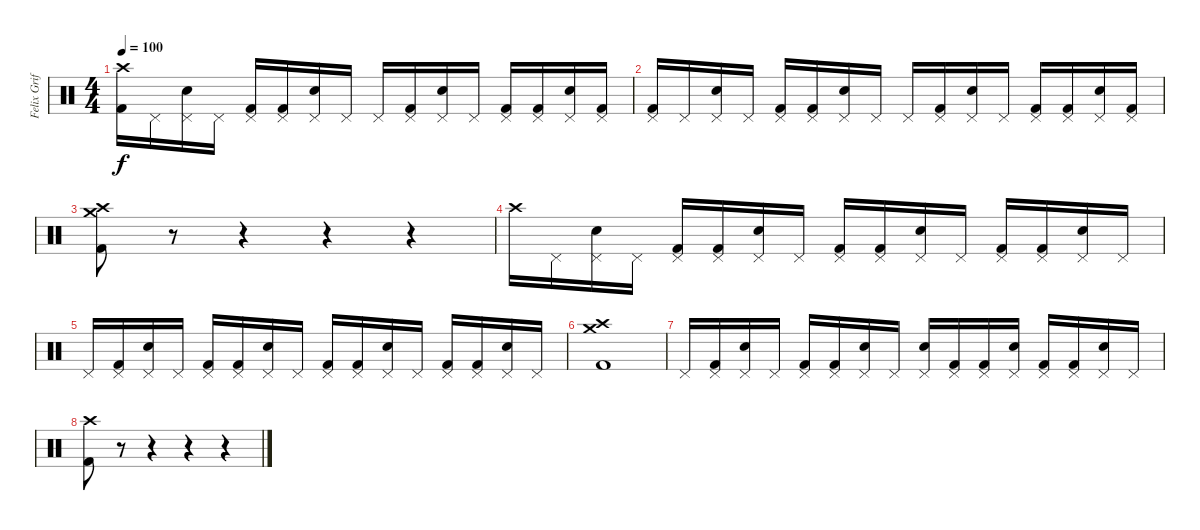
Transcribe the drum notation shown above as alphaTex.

\track ("Felix Griffen" "Felix Grif") {instrument percussion}
\staff {score}
\articulation defaults
\ts (4 4)
\tempo 100
\clef neutral
\ks c
("Crash high (hit)" "Kick (hit) 2").16{dy f} "Pedal Hi-Hat (hit)".16 ("Pedal Hi-Hat (hit)" "Electric Snare (hit)").16 "Pedal Hi-Hat (hit)".16 ("Pedal Hi-Hat (hit)" "Kick (hit) 2").16 ("Pedal Hi-Hat (hit)" "Kick (hit) 2").16 ("Pedal Hi-Hat (hit)" "Electric Snare (hit)").16 "Pedal Hi-Hat (hit)".16 "Pedal Hi-Hat (hit)".16 ("Pedal Hi-Hat (hit)" "Kick (hit) 2").16 ("Pedal Hi-Hat (hit)" "Electric Snare (hit)").16 "Pedal Hi-Hat (hit)".16 ("Pedal Hi-Hat (hit)" "Kick (hit) 2").16 ("Pedal Hi-Hat (hit)" "Kick (hit) 2").16 ("Pedal Hi-Hat (hit)" "Electric Snare (hit)").16 ("Pedal Hi-Hat (hit)" "Kick (hit) 2").16 |
("Pedal Hi-Hat (hit)" "Kick (hit) 2").16 "Pedal Hi-Hat (hit)".16 ("Pedal Hi-Hat (hit)" "Electric Snare (hit)").16 "Pedal Hi-Hat (hit)".16 ("Pedal Hi-Hat (hit)" "Kick (hit) 2").16 ("Pedal Hi-Hat (hit)" "Kick (hit) 2").16 ("Pedal Hi-Hat (hit)" "Electric Snare (hit)").16 "Pedal Hi-Hat (hit)".16 "Pedal Hi-Hat (hit)".16 ("Pedal Hi-Hat (hit)" "Kick (hit) 2").16 ("Pedal Hi-Hat (hit)" "Electric Snare (hit)").16 "Pedal Hi-Hat (hit)".16 ("Pedal Hi-Hat (hit)" "Kick (hit) 2").16 ("Pedal Hi-Hat (hit)" "Kick (hit) 2").16 ("Pedal Hi-Hat (hit)" "Electric Snare (hit)").16 ("Pedal Hi-Hat (hit)" "Kick (hit) 2").16 |
("Crash high (hit)" "Crash medium (hit)" "Kick (hit) 2").8 r.8{volume 0} r.4 r.4 r.4 |
"Crash high (hit)".16{volume 13} "Pedal Hi-Hat (hit)".16 ("Pedal Hi-Hat (hit)" "Electric Snare (hit)").16 "Pedal Hi-Hat (hit)".16 ("Pedal Hi-Hat (hit)" "Kick (hit) 2").16 ("Pedal Hi-Hat (hit)" "Kick (hit) 2").16 ("Pedal Hi-Hat (hit)" "Electric Snare (hit)").16 "Pedal Hi-Hat (hit)".16 ("Pedal Hi-Hat (hit)" "Kick (hit) 2").16 ("Pedal Hi-Hat (hit)" "Kick (hit) 2").16 ("Pedal Hi-Hat (hit)" "Electric Snare (hit)").16 "Pedal Hi-Hat (hit)".16 ("Pedal Hi-Hat (hit)" "Kick (hit) 2").16 ("Pedal Hi-Hat (hit)" "Kick (hit) 2").16 ("Pedal Hi-Hat (hit)" "Electric Snare (hit)").16 "Pedal Hi-Hat (hit)".16 |
"Pedal Hi-Hat (hit)".16 ("Pedal Hi-Hat (hit)" "Kick (hit) 2").16 ("Pedal Hi-Hat (hit)" "Electric Snare (hit)").16 "Pedal Hi-Hat (hit)".16 ("Pedal Hi-Hat (hit)" "Kick (hit) 2").16 ("Pedal Hi-Hat (hit)" "Kick (hit) 2").16 ("Pedal Hi-Hat (hit)" "Electric Snare (hit)").16 "Pedal Hi-Hat (hit)".16 ("Pedal Hi-Hat (hit)" "Kick (hit) 2").16 ("Pedal Hi-Hat (hit)" "Kick (hit) 2").16 ("Pedal Hi-Hat (hit)" "Electric Snare (hit)").16 "Pedal Hi-Hat (hit)".16 ("Pedal Hi-Hat (hit)" "Kick (hit) 2").16 ("Pedal Hi-Hat (hit)" "Kick (hit) 2").16 ("Pedal Hi-Hat (hit)" "Electric Snare (hit)").16 "Pedal Hi-Hat (hit)".16 |
("Crash high (hit)" "Crash medium (hit)" "Kick (hit) 2").1 |
"Pedal Hi-Hat (hit)".16 ("Pedal Hi-Hat (hit)" "Kick (hit) 2").16 ("Pedal Hi-Hat (hit)" "Electric Snare (hit)").16 "Pedal Hi-Hat (hit)".16 ("Pedal Hi-Hat (hit)" "Kick (hit) 2").16 ("Pedal Hi-Hat (hit)" "Kick (hit) 2").16 ("Pedal Hi-Hat (hit)" "Electric Snare (hit)").16 "Pedal Hi-Hat (hit)".16 ("Pedal Hi-Hat (hit)" "Electric Snare (hit)").16 ("Pedal Hi-Hat (hit)" "Kick (hit) 2").16 ("Pedal Hi-Hat (hit)" "Kick (hit) 2").16 ("Pedal Hi-Hat (hit)" "Electric Snare (hit)").16 ("Pedal Hi-Hat (hit)" "Kick (hit) 2").16 ("Pedal Hi-Hat (hit)" "Kick (hit) 2").16 ("Pedal Hi-Hat (hit)" "Electric Snare (hit)").16 "Pedal Hi-Hat (hit)".16 |
("Crash high (hit)" "Kick (hit) 2").8 r.8 r.4 r.4 r.4
